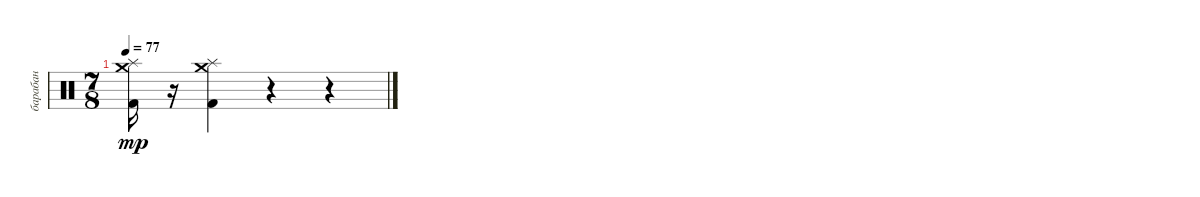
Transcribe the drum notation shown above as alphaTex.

\track ("барабан" "барабан") {instrument percussion}
\staff {score}
\articulation defaults
\ts (7 8)
\tempo 77
\clef neutral
\ks c
("Splash (hit)" "Crash medium (hit)" "Kick (hit) 2").16{dy mp} r.16 ("Splash (hit)" "Crash medium (hit)" "Kick (hit) 2").4 r.4 r.4
